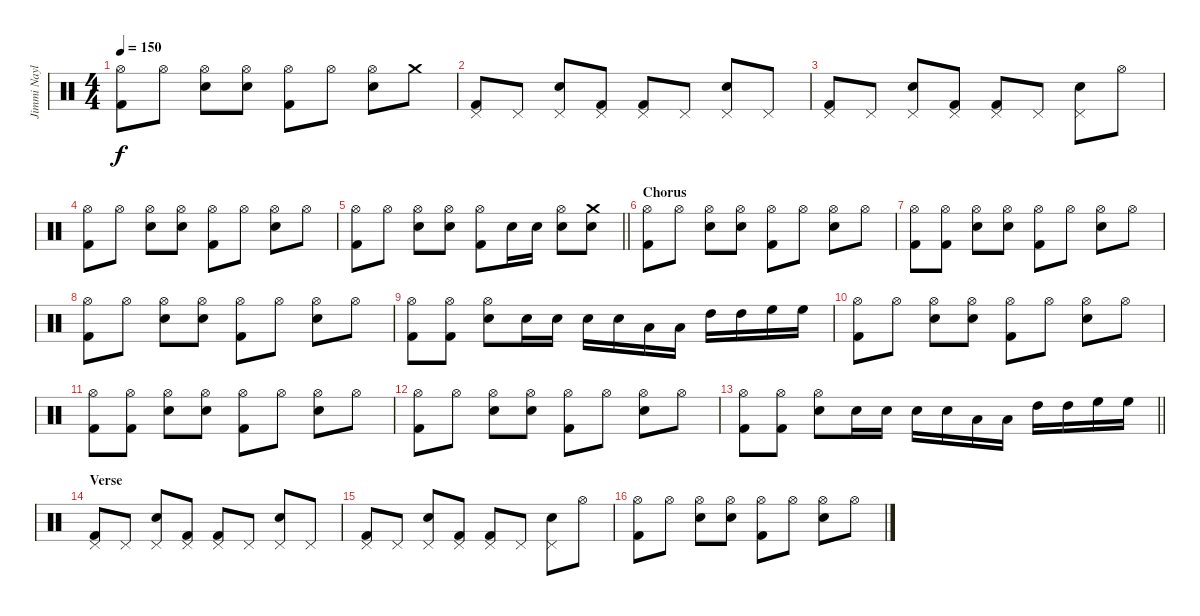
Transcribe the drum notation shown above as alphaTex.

\track ("Jimmi Naylor" "Jimmi Nayl") {instrument percussion}
\staff {score}
\articulation defaults
\ts (4 4)
\tempo 150
\clef neutral
\ks c
("Kick (hit) 2" "Hi-Hat (open)").8{dy f} "Hi-Hat (open)".8 ("Snare (hit) 2" "Hi-Hat (open)").8 ("Snare (hit) 2" "Hi-Hat (open)").8 ("Kick (hit) 2" "Hi-Hat (open)").8 "Hi-Hat (open)".8 ("Snare (hit) 2" "Hi-Hat (open)").8 "Crash medium (hit)".8 |
("Kick (hit) 2" "Pedal Hi-Hat (hit)").8 "Pedal Hi-Hat (hit)".8 ("Electric Snare (hit)" "Pedal Hi-Hat (hit)").8 ("Kick (hit) 2" "Pedal Hi-Hat (hit)").8 ("Kick (hit) 2" "Pedal Hi-Hat (hit)").8 "Pedal Hi-Hat (hit)".8 ("Electric Snare (hit)" "Pedal Hi-Hat (hit)").8 "Pedal Hi-Hat (hit)".8 |
("Kick (hit) 2" "Pedal Hi-Hat (hit)").8 "Pedal Hi-Hat (hit)".8 ("Electric Snare (hit)" "Pedal Hi-Hat (hit)").8 ("Kick (hit) 2" "Pedal Hi-Hat (hit)").8 ("Kick (hit) 2" "Pedal Hi-Hat (hit)").8 "Pedal Hi-Hat (hit)".8 ("Electric Snare (hit)" "Pedal Hi-Hat (hit)").8 "Hi-Hat (open)".8 |
("Kick (hit) 2" "Hi-Hat (open)").8 "Hi-Hat (open)".8 ("Snare (hit) 2" "Hi-Hat (open)").8 ("Snare (hit) 2" "Hi-Hat (open)").8 ("Kick (hit) 2" "Hi-Hat (open)").8 "Hi-Hat (open)".8 ("Snare (hit) 2" "Hi-Hat (open)").8 "Hi-Hat (open)".8 |
\barLineRight lightlight
("Kick (hit) 2" "Hi-Hat (open)").8 "Hi-Hat (open)".8 ("Snare (hit) 2" "Hi-Hat (open)").8 ("Snare (hit) 2" "Hi-Hat (open)").8 ("Kick (hit) 2" "Hi-Hat (open)").8 "Snare (hit) 2".16 "Snare (hit) 2".16 ("Snare (hit) 2" "Hi-Hat (open)").8 ("Snare (hit) 2" "Crash medium (hit)").8 |
\section ("" "Chorus")
("Kick (hit) 2" "Hi-Hat (open)").8 "Hi-Hat (open)".8 ("Snare (hit) 2" "Hi-Hat (open)").8 ("Snare (hit) 2" "Hi-Hat (open)").8 ("Kick (hit) 2" "Hi-Hat (open)").8 "Hi-Hat (open)".8 ("Snare (hit) 2" "Hi-Hat (open)").8 "Hi-Hat (open)".8 |
("Kick (hit) 2" "Hi-Hat (open)").8 ("Kick (hit) 2" "Hi-Hat (open)").8 ("Snare (hit) 2" "Hi-Hat (open)").8 ("Snare (hit) 2" "Hi-Hat (open)").8 ("Kick (hit) 2" "Hi-Hat (open)").8 "Hi-Hat (open)".8 ("Snare (hit) 2" "Hi-Hat (open)").8 "Hi-Hat (open)".8 |
("Kick (hit) 2" "Hi-Hat (open)").8 "Hi-Hat (open)".8 ("Snare (hit) 2" "Hi-Hat (open)").8 ("Snare (hit) 2" "Hi-Hat (open)").8 ("Kick (hit) 2" "Hi-Hat (open)").8 "Hi-Hat (open)".8 ("Snare (hit) 2" "Hi-Hat (open)").8 "Hi-Hat (open)".8 |
("Kick (hit) 2" "Hi-Hat (open)").8 ("Kick (hit) 2" "Hi-Hat (open)").8 ("Snare (hit) 2" "Hi-Hat (open)").8 "Snare (hit) 2".16 "Snare (hit) 2".16 "Electric Snare (hit)".16 "Electric Snare (hit)".16 "Low Tom (hit)".16 "Low Tom (hit)".16 "High Tom (hit)".16 "High Tom (hit)".16 "High Floor Tom (hit)".16 "High Floor Tom (hit)".16 |
("Kick (hit) 2" "Hi-Hat (open)").8 "Hi-Hat (open)".8 ("Snare (hit) 2" "Hi-Hat (open)").8 ("Snare (hit) 2" "Hi-Hat (open)").8 ("Kick (hit) 2" "Hi-Hat (open)").8 "Hi-Hat (open)".8 ("Snare (hit) 2" "Hi-Hat (open)").8 "Hi-Hat (open)".8 |
("Kick (hit) 2" "Hi-Hat (open)").8 ("Kick (hit) 2" "Hi-Hat (open)").8 ("Snare (hit) 2" "Hi-Hat (open)").8 ("Snare (hit) 2" "Hi-Hat (open)").8 ("Kick (hit) 2" "Hi-Hat (open)").8 "Hi-Hat (open)".8 ("Snare (hit) 2" "Hi-Hat (open)").8 "Hi-Hat (open)".8 |
("Kick (hit) 2" "Hi-Hat (open)").8 "Hi-Hat (open)".8 ("Snare (hit) 2" "Hi-Hat (open)").8 ("Snare (hit) 2" "Hi-Hat (open)").8 ("Kick (hit) 2" "Hi-Hat (open)").8 "Hi-Hat (open)".8 ("Snare (hit) 2" "Hi-Hat (open)").8 "Hi-Hat (open)".8 |
\barLineRight lightlight
("Kick (hit) 2" "Hi-Hat (open)").8 ("Kick (hit) 2" "Hi-Hat (open)").8 ("Snare (hit) 2" "Hi-Hat (open)").8 "Snare (hit) 2".16 "Snare (hit) 2".16 "Electric Snare (hit)".16 "Electric Snare (hit)".16 "Low Tom (hit)".16 "Low Tom (hit)".16 "High Tom (hit)".16 "High Tom (hit)".16 "High Floor Tom (hit)".16 "High Floor Tom (hit)".16 |
\section ("" "Verse")
("Kick (hit) 2" "Pedal Hi-Hat (hit)").8 "Pedal Hi-Hat (hit)".8 ("Electric Snare (hit)" "Pedal Hi-Hat (hit)").8 ("Kick (hit) 2" "Pedal Hi-Hat (hit)").8 ("Kick (hit) 2" "Pedal Hi-Hat (hit)").8 "Pedal Hi-Hat (hit)".8 ("Electric Snare (hit)" "Pedal Hi-Hat (hit)").8 "Pedal Hi-Hat (hit)".8 |
("Kick (hit) 2" "Pedal Hi-Hat (hit)").8 "Pedal Hi-Hat (hit)".8 ("Electric Snare (hit)" "Pedal Hi-Hat (hit)").8 ("Kick (hit) 2" "Pedal Hi-Hat (hit)").8 ("Kick (hit) 2" "Pedal Hi-Hat (hit)").8 "Pedal Hi-Hat (hit)".8 ("Electric Snare (hit)" "Pedal Hi-Hat (hit)").8 "Hi-Hat (open)".8 |
("Kick (hit) 2" "Hi-Hat (open)").8 "Hi-Hat (open)".8 ("Snare (hit) 2" "Hi-Hat (open)").8 ("Snare (hit) 2" "Hi-Hat (open)").8 ("Kick (hit) 2" "Hi-Hat (open)").8 "Hi-Hat (open)".8 ("Snare (hit) 2" "Hi-Hat (open)").8 "Hi-Hat (open)".8
